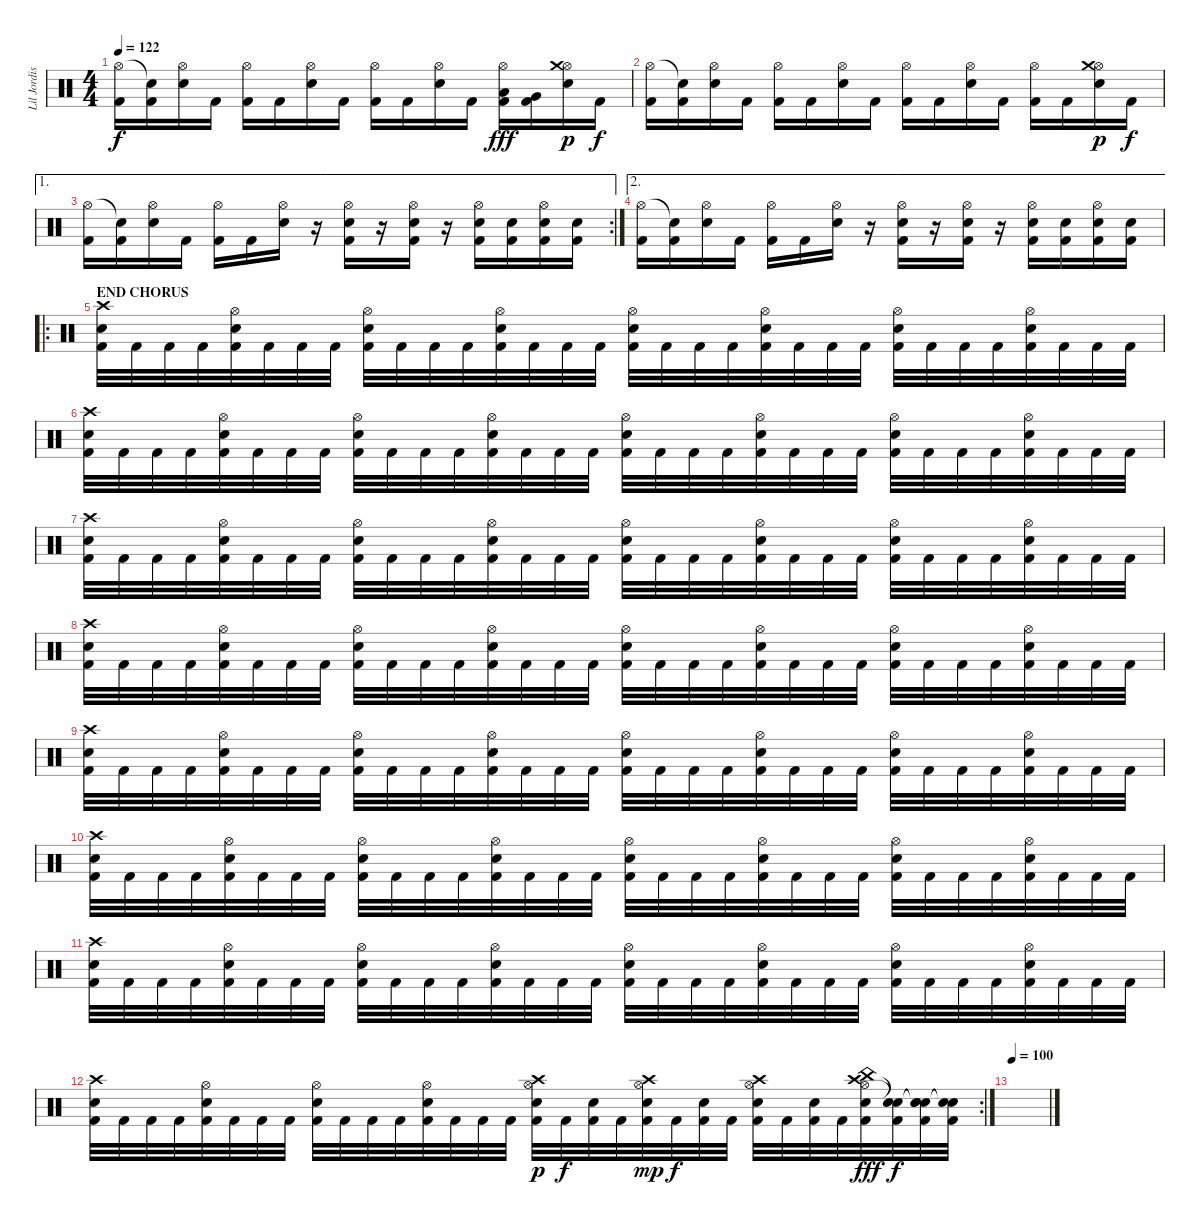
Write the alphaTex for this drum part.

\track ("Lil Jordison" "Lil Jordis") {instrument percussion}
\staff {score}
\articulation defaults
\ts (4 4)
\tempo 122
\clef neutral
\ks c
("Hi-Hat (open)" "Kick (hit) 2").16{dy f} ("Snare (hit)"{t} "Kick (hit) 2").16 ("Hi-Hat (open)" "Electric Snare (hit)").16 "Kick (hit) 2".16 ("Hi-Hat (open)" "Kick (hit) 2").16 "Kick (hit) 2".16 ("Hi-Hat (open)" "Electric Snare (hit)").16 "Kick (hit) 2".16 ("Hi-Hat (open)" "Kick (hit) 2").16 "Kick (hit) 2".16 ("Hi-Hat (open)" "Electric Snare (hit)").16 "Kick (hit) 2".16 ("Hi-Hat (open)" "Low Tom (hit)" "Kick (hit) 2").16{dy fff} ("Very Low Tom (hit)" "Kick (hit) 2").16 ("Hi-Hat (open)" "Crash medium (hit)" "Electric Snare (hit)").16{dy p} "Kick (hit) 2".16{dy f} |
("Hi-Hat (open)" "Kick (hit) 2").16 ("Snare (hit)"{t} "Kick (hit) 2").16 ("Hi-Hat (open)" "Electric Snare (hit)").16 "Kick (hit) 2".16 ("Hi-Hat (open)" "Kick (hit) 2").16 "Kick (hit) 2".16 ("Hi-Hat (open)" "Electric Snare (hit)").16 "Kick (hit) 2".16 ("Hi-Hat (open)" "Kick (hit) 2").16 "Kick (hit) 2".16 ("Hi-Hat (open)" "Electric Snare (hit)").16 "Kick (hit) 2".16 ("Hi-Hat (open)" "Kick (hit) 2").16 "Kick (hit) 2".16 ("Hi-Hat (open)" "Crash medium (hit)" "Electric Snare (hit)").16{dy p} "Kick (hit) 2".16{dy f} |
\ae 1
\rc 2
("Hi-Hat (open)" "Kick (hit) 2").16 ("Snare (hit)"{t} "Kick (hit) 2").16 ("Hi-Hat (open)" "Electric Snare (hit)").16 "Kick (hit) 2".16 ("Hi-Hat (open)" "Kick (hit) 2").16 "Kick (hit) 2".16 ("Hi-Hat (open)" "Electric Snare (hit)").16 r.16 ("Hi-Hat (open)" "Kick (hit) 2" "Electric Snare (hit)").16 r.16 ("Hi-Hat (open)" "Kick (hit) 2" "Electric Snare (hit)").16 r.16 ("Hi-Hat (open)" "Kick (hit) 2" "Electric Snare (hit)").16 ("Kick (hit) 2" "Electric Snare (hit)").16 ("Hi-Hat (open)" "Kick (hit) 2" "Electric Snare (hit)").16 ("Kick (hit) 2" "Electric Snare (hit)").16 |
\ae 2
("Hi-Hat (open)" "Kick (hit) 2").16 ("Snare (hit)"{t} "Kick (hit) 2").16 ("Hi-Hat (open)" "Electric Snare (hit)").16 "Kick (hit) 2".16 ("Hi-Hat (open)" "Kick (hit) 2").16 "Kick (hit) 2".16 ("Hi-Hat (open)" "Electric Snare (hit)").16 r.16 ("Hi-Hat (open)" "Kick (hit) 2" "Electric Snare (hit)").16 r.16 ("Hi-Hat (open)" "Kick (hit) 2" "Electric Snare (hit)").16 r.16 ("Hi-Hat (open)" "Kick (hit) 2" "Electric Snare (hit)").16 ("Kick (hit) 2" "Electric Snare (hit)").16 ("Hi-Hat (open)" "Kick (hit) 2" "Electric Snare (hit)").16 ("Kick (hit) 2" "Electric Snare (hit)").16 |
\ro
\section ("" "END CHORUS ")
("Crash high (hit)" "Electric Snare (hit)" "Kick (hit) 2").32 "Kick (hit) 2".32 "Kick (hit) 2".32 "Kick (hit) 2".32 ("Hi-Hat (open)" "Electric Snare (hit)" "Kick (hit) 2").32 "Kick (hit) 2".32 "Kick (hit) 2".32 "Kick (hit) 2".32 ("Hi-Hat (open)" "Electric Snare (hit)" "Kick (hit) 2").32 "Kick (hit) 2".32 "Kick (hit) 2".32 "Kick (hit) 2".32 ("Hi-Hat (open)" "Electric Snare (hit)" "Kick (hit) 2").32 "Kick (hit) 2".32 "Kick (hit) 2".32 "Kick (hit) 2".32 ("Hi-Hat (open)" "Electric Snare (hit)" "Kick (hit) 2").32 "Kick (hit) 2".32 "Kick (hit) 2".32 "Kick (hit) 2".32 ("Hi-Hat (open)" "Electric Snare (hit)" "Kick (hit) 2").32 "Kick (hit) 2".32 "Kick (hit) 2".32 "Kick (hit) 2".32 ("Hi-Hat (open)" "Electric Snare (hit)" "Kick (hit) 2").32 "Kick (hit) 2".32 "Kick (hit) 2".32 "Kick (hit) 2".32 ("Hi-Hat (open)" "Electric Snare (hit)" "Kick (hit) 2").32 "Kick (hit) 2".32 "Kick (hit) 2".32 "Kick (hit) 2".32 |
("Crash high (hit)" "Electric Snare (hit)" "Kick (hit) 2").32 "Kick (hit) 2".32 "Kick (hit) 2".32 "Kick (hit) 2".32 ("Hi-Hat (open)" "Electric Snare (hit)" "Kick (hit) 2").32 "Kick (hit) 2".32 "Kick (hit) 2".32 "Kick (hit) 2".32 ("Hi-Hat (open)" "Electric Snare (hit)" "Kick (hit) 2").32 "Kick (hit) 2".32 "Kick (hit) 2".32 "Kick (hit) 2".32 ("Hi-Hat (open)" "Electric Snare (hit)" "Kick (hit) 2").32 "Kick (hit) 2".32 "Kick (hit) 2".32 "Kick (hit) 2".32 ("Hi-Hat (open)" "Electric Snare (hit)" "Kick (hit) 2").32 "Kick (hit) 2".32 "Kick (hit) 2".32 "Kick (hit) 2".32 ("Hi-Hat (open)" "Electric Snare (hit)" "Kick (hit) 2").32 "Kick (hit) 2".32 "Kick (hit) 2".32 "Kick (hit) 2".32 ("Hi-Hat (open)" "Electric Snare (hit)" "Kick (hit) 2").32 "Kick (hit) 2".32 "Kick (hit) 2".32 "Kick (hit) 2".32 ("Hi-Hat (open)" "Electric Snare (hit)" "Kick (hit) 2").32 "Kick (hit) 2".32 "Kick (hit) 2".32 "Kick (hit) 2".32 |
("Crash high (hit)" "Electric Snare (hit)" "Kick (hit) 2").32 "Kick (hit) 2".32 "Kick (hit) 2".32 "Kick (hit) 2".32 ("Hi-Hat (open)" "Electric Snare (hit)" "Kick (hit) 2").32 "Kick (hit) 2".32 "Kick (hit) 2".32 "Kick (hit) 2".32 ("Hi-Hat (open)" "Electric Snare (hit)" "Kick (hit) 2").32 "Kick (hit) 2".32 "Kick (hit) 2".32 "Kick (hit) 2".32 ("Hi-Hat (open)" "Electric Snare (hit)" "Kick (hit) 2").32 "Kick (hit) 2".32 "Kick (hit) 2".32 "Kick (hit) 2".32 ("Hi-Hat (open)" "Electric Snare (hit)" "Kick (hit) 2").32 "Kick (hit) 2".32 "Kick (hit) 2".32 "Kick (hit) 2".32 ("Hi-Hat (open)" "Electric Snare (hit)" "Kick (hit) 2").32 "Kick (hit) 2".32 "Kick (hit) 2".32 "Kick (hit) 2".32 ("Hi-Hat (open)" "Electric Snare (hit)" "Kick (hit) 2").32 "Kick (hit) 2".32 "Kick (hit) 2".32 "Kick (hit) 2".32 ("Hi-Hat (open)" "Electric Snare (hit)" "Kick (hit) 2").32 "Kick (hit) 2".32 "Kick (hit) 2".32 "Kick (hit) 2".32 |
("Crash high (hit)" "Electric Snare (hit)" "Kick (hit) 2").32 "Kick (hit) 2".32 "Kick (hit) 2".32 "Kick (hit) 2".32 ("Hi-Hat (open)" "Electric Snare (hit)" "Kick (hit) 2").32 "Kick (hit) 2".32 "Kick (hit) 2".32 "Kick (hit) 2".32 ("Hi-Hat (open)" "Electric Snare (hit)" "Kick (hit) 2").32 "Kick (hit) 2".32 "Kick (hit) 2".32 "Kick (hit) 2".32 ("Hi-Hat (open)" "Electric Snare (hit)" "Kick (hit) 2").32 "Kick (hit) 2".32 "Kick (hit) 2".32 "Kick (hit) 2".32 ("Hi-Hat (open)" "Electric Snare (hit)" "Kick (hit) 2").32 "Kick (hit) 2".32 "Kick (hit) 2".32 "Kick (hit) 2".32 ("Hi-Hat (open)" "Electric Snare (hit)" "Kick (hit) 2").32 "Kick (hit) 2".32 "Kick (hit) 2".32 "Kick (hit) 2".32 ("Hi-Hat (open)" "Electric Snare (hit)" "Kick (hit) 2").32 "Kick (hit) 2".32 "Kick (hit) 2".32 "Kick (hit) 2".32 ("Hi-Hat (open)" "Electric Snare (hit)" "Kick (hit) 2").32 "Kick (hit) 2".32 "Kick (hit) 2".32 "Kick (hit) 2".32 |
("Crash high (hit)" "Electric Snare (hit)" "Kick (hit) 2").32 "Kick (hit) 2".32 "Kick (hit) 2".32 "Kick (hit) 2".32 ("Hi-Hat (open)" "Electric Snare (hit)" "Kick (hit) 2").32 "Kick (hit) 2".32 "Kick (hit) 2".32 "Kick (hit) 2".32 ("Hi-Hat (open)" "Electric Snare (hit)" "Kick (hit) 2").32 "Kick (hit) 2".32 "Kick (hit) 2".32 "Kick (hit) 2".32 ("Hi-Hat (open)" "Electric Snare (hit)" "Kick (hit) 2").32 "Kick (hit) 2".32 "Kick (hit) 2".32 "Kick (hit) 2".32 ("Hi-Hat (open)" "Electric Snare (hit)" "Kick (hit) 2").32 "Kick (hit) 2".32 "Kick (hit) 2".32 "Kick (hit) 2".32 ("Hi-Hat (open)" "Electric Snare (hit)" "Kick (hit) 2").32 "Kick (hit) 2".32 "Kick (hit) 2".32 "Kick (hit) 2".32 ("Hi-Hat (open)" "Electric Snare (hit)" "Kick (hit) 2").32 "Kick (hit) 2".32 "Kick (hit) 2".32 "Kick (hit) 2".32 ("Hi-Hat (open)" "Electric Snare (hit)" "Kick (hit) 2").32 "Kick (hit) 2".32 "Kick (hit) 2".32 "Kick (hit) 2".32 |
("Crash high (hit)" "Electric Snare (hit)" "Kick (hit) 2").32 "Kick (hit) 2".32 "Kick (hit) 2".32 "Kick (hit) 2".32 ("Hi-Hat (open)" "Electric Snare (hit)" "Kick (hit) 2").32 "Kick (hit) 2".32 "Kick (hit) 2".32 "Kick (hit) 2".32 ("Hi-Hat (open)" "Electric Snare (hit)" "Kick (hit) 2").32 "Kick (hit) 2".32 "Kick (hit) 2".32 "Kick (hit) 2".32 ("Hi-Hat (open)" "Electric Snare (hit)" "Kick (hit) 2").32 "Kick (hit) 2".32 "Kick (hit) 2".32 "Kick (hit) 2".32 ("Hi-Hat (open)" "Electric Snare (hit)" "Kick (hit) 2").32 "Kick (hit) 2".32 "Kick (hit) 2".32 "Kick (hit) 2".32 ("Hi-Hat (open)" "Electric Snare (hit)" "Kick (hit) 2").32 "Kick (hit) 2".32 "Kick (hit) 2".32 "Kick (hit) 2".32 ("Hi-Hat (open)" "Electric Snare (hit)" "Kick (hit) 2").32 "Kick (hit) 2".32 "Kick (hit) 2".32 "Kick (hit) 2".32 ("Hi-Hat (open)" "Electric Snare (hit)" "Kick (hit) 2").32 "Kick (hit) 2".32 "Kick (hit) 2".32 "Kick (hit) 2".32 |
("Crash high (hit)" "Electric Snare (hit)" "Kick (hit) 2").32 "Kick (hit) 2".32 "Kick (hit) 2".32 "Kick (hit) 2".32 ("Hi-Hat (open)" "Electric Snare (hit)" "Kick (hit) 2").32 "Kick (hit) 2".32 "Kick (hit) 2".32 "Kick (hit) 2".32 ("Hi-Hat (open)" "Electric Snare (hit)" "Kick (hit) 2").32 "Kick (hit) 2".32 "Kick (hit) 2".32 "Kick (hit) 2".32 ("Hi-Hat (open)" "Electric Snare (hit)" "Kick (hit) 2").32 "Kick (hit) 2".32 "Kick (hit) 2".32 "Kick (hit) 2".32 ("Hi-Hat (open)" "Electric Snare (hit)" "Kick (hit) 2").32 "Kick (hit) 2".32 "Kick (hit) 2".32 "Kick (hit) 2".32 ("Hi-Hat (open)" "Electric Snare (hit)" "Kick (hit) 2").32 "Kick (hit) 2".32 "Kick (hit) 2".32 "Kick (hit) 2".32 ("Hi-Hat (open)" "Electric Snare (hit)" "Kick (hit) 2").32 "Kick (hit) 2".32 "Kick (hit) 2".32 "Kick (hit) 2".32 ("Hi-Hat (open)" "Electric Snare (hit)" "Kick (hit) 2").32 "Kick (hit) 2".32 "Kick (hit) 2".32 "Kick (hit) 2".32 |
\rc 2
("Crash high (hit)" "Electric Snare (hit)" "Kick (hit) 2").32 "Kick (hit) 2".32 "Kick (hit) 2".32 "Kick (hit) 2".32 ("Hi-Hat (open)" "Electric Snare (hit)" "Kick (hit) 2").32 "Kick (hit) 2".32 "Kick (hit) 2".32 "Kick (hit) 2".32 ("Hi-Hat (open)" "Electric Snare (hit)" "Kick (hit) 2").32 "Kick (hit) 2".32 "Kick (hit) 2".32 "Kick (hit) 2".32 ("Hi-Hat (open)" "Electric Snare (hit)" "Kick (hit) 2").32 "Kick (hit) 2".32 "Kick (hit) 2".32 "Kick (hit) 2".32 ("Hi-Hat (open)" "Crash high (hit)" "Electric Snare (hit)" "Kick (hit) 2").32{dy p} "Kick (hit) 2".32{dy f} ("Electric Snare (hit)" "Kick (hit) 2").32 "Kick (hit) 2".32 ("Hi-Hat (open)" "Crash high (hit)" "Electric Snare (hit)" "Kick (hit) 2").32{dy mp} "Kick (hit) 2".32{dy f} ("Electric Snare (hit)" "Kick (hit) 2").32 "Kick (hit) 2".32 ("Hi-Hat (open)" "Crash high (hit)" "Electric Snare (hit)" "Kick (hit) 2").32 "Kick (hit) 2".32 ("Electric Snare (hit)" "Kick (hit) 2").32 "Kick (hit) 2".32 ("Hi-Hat (open)" "Crash high (hit)" "China (hit)" "Electric Snare (hit)" "Kick (hit) 2").32{dy fff} ("Snare (hit)"{t} "Snare (hit)"{t} "Kick (hit) 2").32{dy f} ("Snare (hit)"{t} "Snare (hit)"{t} "Electric Snare (hit)" "Kick (hit) 2").32 ("Snare (hit)"{t} "Snare (hit)"{t} "Kick (hit) 2").32 |
\tempo 100
